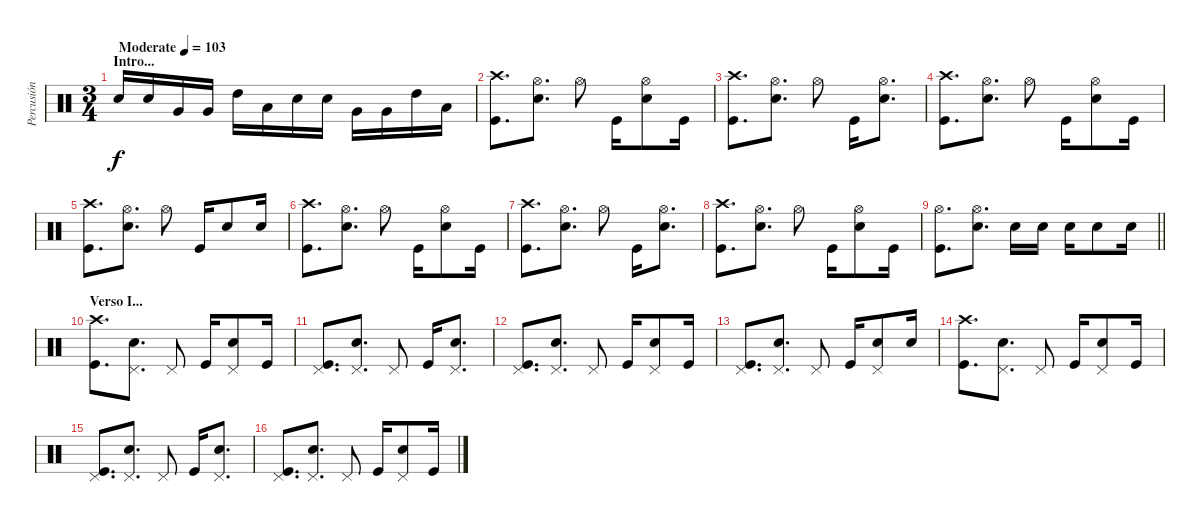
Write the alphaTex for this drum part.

\track ("Percusión" "Percusión") {instrument percussion}
\staff {score}
\articulation defaults
\ts (3 4)
\section ("" "Intro...")
\tempo (103 "Moderate")
\clef neutral
\ks c "Snare (hit) 2".16{dy f} "Snare (hit) 2".16 "Very Low Tom (hit)".16 "Very Low Tom (hit)".16 "High Tom (hit)".16 "Low Floor Tom (hit)".16 "Snare (hit) 2".16 "Snare (hit) 2".16 "Very Low Tom (hit)".16 "Very Low Tom (hit)".16 "High Tom (hit)".16 "Low Floor Tom (hit)".16
|
("Crash high (hit)" "Kick (hit)").8{d} ("Hi-Hat (open)" "Snare (hit) 2").8{d} "Hi-Hat (open)".8 "Kick (hit)".16 ("Hi-Hat (open)" "Snare (hit) 2").8 "Kick (hit)".16 |
("Crash high (hit)" "Kick (hit)").8{d} ("Hi-Hat (open)" "Snare (hit) 2").8{d} "Hi-Hat (open)".8 "Kick (hit)".16 ("Hi-Hat (open)" "Snare (hit) 2").8{d} |
("Crash high (hit)" "Kick (hit)").8{d} ("Hi-Hat (open)" "Snare (hit) 2").8{d} "Hi-Hat (open)".8 "Kick (hit)".16 ("Hi-Hat (open)" "Snare (hit) 2").8 "Kick (hit)".16 |
("Crash high (hit)" "Kick (hit)").8{d} ("Hi-Hat (open)" "Snare (hit) 2").8{d} "Hi-Hat (open)".8 "Kick (hit)".16 "Snare (hit) 2".8 "Snare (hit) 2".16 |
("Crash high (hit)" "Kick (hit)").8{d} ("Hi-Hat (open)" "Snare (hit) 2").8{d} "Hi-Hat (open)".8 "Kick (hit)".16 ("Hi-Hat (open)" "Snare (hit) 2").8 "Kick (hit)".16 |
("Crash high (hit)" "Kick (hit)").8{d} ("Hi-Hat (open)" "Snare (hit) 2").8{d} "Hi-Hat (open)".8 "Kick (hit)".16 ("Hi-Hat (open)" "Snare (hit) 2").8{d} |
("Crash high (hit)" "Kick (hit)").8{d} ("Hi-Hat (open)" "Snare (hit) 2").8{d} "Hi-Hat (open)".8 "Kick (hit)".16 ("Hi-Hat (open)" "Snare (hit) 2").8 "Kick (hit)".16 |
\barLineRight lightlight
("Hi-Hat (open)" "Kick (hit)").8{d} ("Hi-Hat (open)" "Snare (hit) 2").8{d} "Snare (hit) 2".16 "Snare (hit) 2".16 "Snare (hit) 2".16 "Snare (hit) 2".8 "Snare (hit) 2".16 |
\section ("" "Verso I...")
("Crash high (hit)" "Kick (hit)").8{d} ("Pedal Hi-Hat (hit)" "Snare (hit) 2").8{d} "Pedal Hi-Hat (hit)".8 "Kick (hit)".16 ("Pedal Hi-Hat (hit)" "Snare (hit) 2").8 "Kick (hit)".16 |
("Pedal Hi-Hat (hit)" "Kick (hit)").8{d} ("Pedal Hi-Hat (hit)" "Snare (hit) 2").8{d} "Pedal Hi-Hat (hit)".8 "Kick (hit)".16 ("Pedal Hi-Hat (hit)" "Snare (hit) 2").8{d} |
("Pedal Hi-Hat (hit)" "Kick (hit)").8{d} ("Pedal Hi-Hat (hit)" "Snare (hit) 2").8{d} "Pedal Hi-Hat (hit)".8 "Kick (hit)".16 ("Pedal Hi-Hat (hit)" "Snare (hit) 2").8 "Kick (hit)".16 |
("Pedal Hi-Hat (hit)" "Kick (hit)").8{d} ("Pedal Hi-Hat (hit)" "Snare (hit) 2").8{d} "Pedal Hi-Hat (hit)".8 "Kick (hit)".16 ("Pedal Hi-Hat (hit)" "Snare (hit) 2").8 "Snare (hit) 2".16 |
("Crash high (hit)" "Kick (hit)").8{d} ("Pedal Hi-Hat (hit)" "Snare (hit) 2").8{d} "Pedal Hi-Hat (hit)".8 "Kick (hit)".16 ("Pedal Hi-Hat (hit)" "Snare (hit) 2").8 "Kick (hit)".16 |
("Pedal Hi-Hat (hit)" "Kick (hit)").8{d} ("Pedal Hi-Hat (hit)" "Snare (hit) 2").8{d} "Pedal Hi-Hat (hit)".8 "Kick (hit)".16 ("Pedal Hi-Hat (hit)" "Snare (hit) 2").8{d} |
("Pedal Hi-Hat (hit)" "Kick (hit)").8{d} ("Pedal Hi-Hat (hit)" "Snare (hit) 2").8{d} "Pedal Hi-Hat (hit)".8 "Kick (hit)".16 ("Pedal Hi-Hat (hit)" "Snare (hit) 2").8 "Kick (hit)".16
